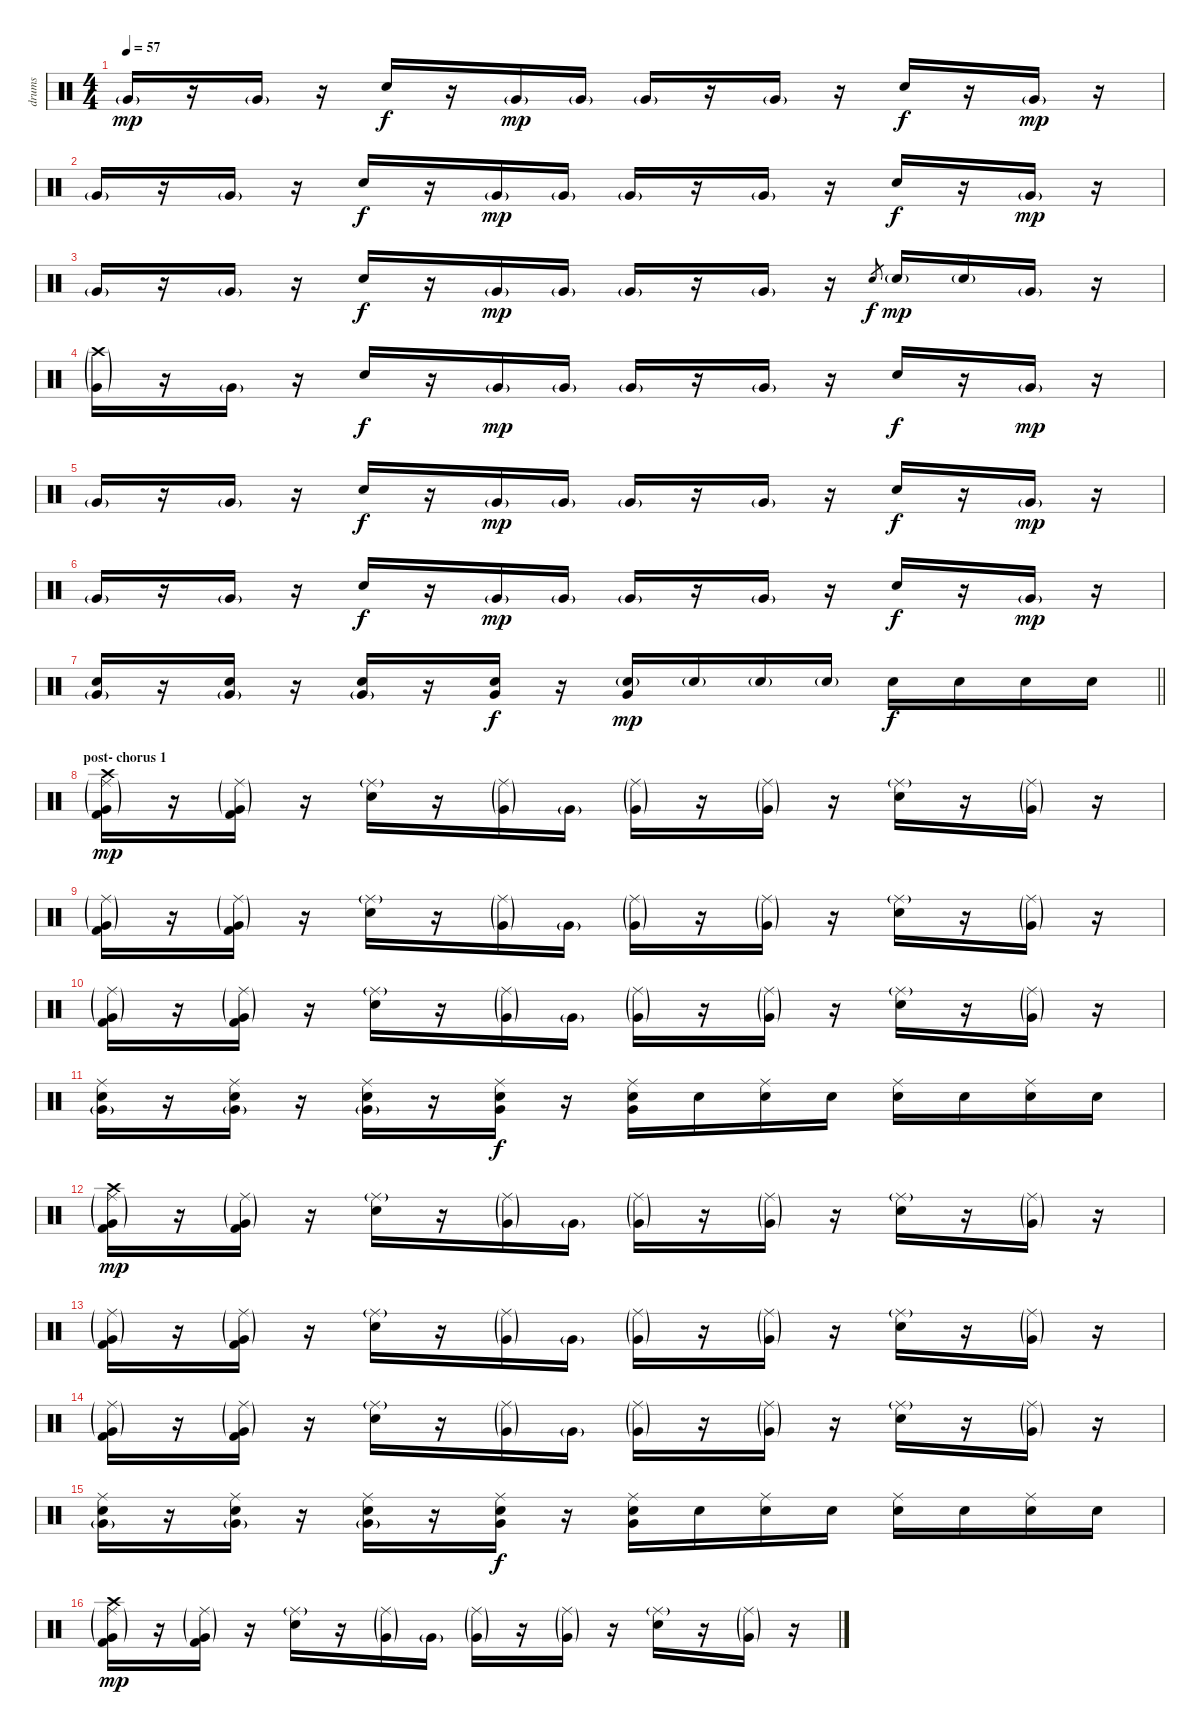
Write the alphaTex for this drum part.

\track ("drums" "drums") {instrument percussion}
\staff {score}
\articulation defaults
\ts (4 4)
\tempo 57
\clef neutral
\ks c "Very Low Tom (hit)"{g}.16{dy mp}
r.16 "Very Low Tom (hit)"{g}.16 r.16 "Electric Snare (hit)".16{dy f} r.16 "Very Low Tom (hit)"{g}.16{dy mp} "Very Low Tom (hit)"{g}.16 "Very Low Tom (hit)"{g}.16 r.16 "Very Low Tom (hit)"{g}.16 r.16 "Electric Snare (hit)".16{dy f} r.16 "Very Low Tom (hit)"{g}.16{dy mp} r.16 |
"Very Low Tom (hit)"{g}.16 r.16 "Very Low Tom (hit)"{g}.16 r.16 "Electric Snare (hit)".16{dy f} r.16 "Very Low Tom (hit)"{g}.16{dy mp} "Very Low Tom (hit)"{g}.16 "Very Low Tom (hit)"{g}.16 r.16 "Very Low Tom (hit)"{g}.16 r.16 "Electric Snare (hit)".16{dy f} r.16 "Very Low Tom (hit)"{g}.16{dy mp} r.16 |
"Very Low Tom (hit)"{g}.16 r.16 "Very Low Tom (hit)"{g}.16 r.16 "Electric Snare (hit)".16{dy f} r.16 "Very Low Tom (hit)"{g}.16{dy mp} "Very Low Tom (hit)"{g}.16 "Very Low Tom (hit)"{g}.16 r.16 "Very Low Tom (hit)"{g}.16 r.16 "Electric Snare (hit)".8{gr dy f} "Electric Snare (hit)"{g}.16{dy mp} "Electric Snare (hit)"{g}.16 "Very Low Tom (hit)"{g}.16 r.16 |
("Very Low Tom (hit)"{g} "Crash high (hit)"{g}).16 r.16 "Very Low Tom (hit)"{g}.16 r.16 "Electric Snare (hit)".16{dy f} r.16 "Very Low Tom (hit)"{g}.16{dy mp} "Very Low Tom (hit)"{g}.16 "Very Low Tom (hit)"{g}.16 r.16 "Very Low Tom (hit)"{g}.16 r.16 "Electric Snare (hit)".16{dy f} r.16 "Very Low Tom (hit)"{g}.16{dy mp} r.16 |
"Very Low Tom (hit)"{g}.16 r.16 "Very Low Tom (hit)"{g}.16 r.16 "Electric Snare (hit)".16{dy f} r.16 "Very Low Tom (hit)"{g}.16{dy mp} "Very Low Tom (hit)"{g}.16 "Very Low Tom (hit)"{g}.16 r.16 "Very Low Tom (hit)"{g}.16 r.16 "Electric Snare (hit)".16{dy f} r.16 "Very Low Tom (hit)"{g}.16{dy mp} r.16 |
"Very Low Tom (hit)"{g}.16 r.16 "Very Low Tom (hit)"{g}.16 r.16 "Electric Snare (hit)".16{dy f} r.16 "Very Low Tom (hit)"{g}.16{dy mp} "Very Low Tom (hit)"{g}.16 "Very Low Tom (hit)"{g}.16 r.16 "Very Low Tom (hit)"{g}.16 r.16 "Electric Snare (hit)".16{dy f} r.16 "Very Low Tom (hit)"{g}.16{dy mp} r.16 |
\barLineRight lightlight
("Electric Snare (hit)" "Very Low Tom (hit)"{g}).16 r.16 ("Electric Snare (hit)" "Very Low Tom (hit)"{g}).16 r.16 ("Electric Snare (hit)" "Very Low Tom (hit)"{g}).16 r.16 ("Electric Snare (hit)" "Very Low Tom (hit)").16{dy f} r.16 ("Electric Snare (hit)"{g} "Very Low Tom (hit)").16{dy mp} "Electric Snare (hit)"{g}.16 "Electric Snare (hit)"{g}.16 "Electric Snare (hit)"{g}.16 "Electric Snare (hit)".16{dy f} "Electric Snare (hit)".16 "Electric Snare (hit)".16 "Electric Snare (hit)".16 |
\section ("" "post- chorus 1")
("Kick (hit) 2" "Very Low Tom (hit)"{g} "Ride (middle)"{g} "Crash high (hit)").16{dy mp} r.16 ("Kick (hit) 2" "Very Low Tom (hit)"{g} "Ride (middle)"{g}).16 r.16 ("Electric Snare (hit)" "Ride (middle)"{g}).16 r.16 ("Very Low Tom (hit)"{g} "Ride (middle)"{g}).16 "Very Low Tom (hit)"{g}.16 ("Very Low Tom (hit)"{g} "Ride (middle)"{g}).16 r.16 ("Very Low Tom (hit)"{g} "Ride (middle)"{g}).16 r.16 ("Electric Snare (hit)" "Ride (middle)"{g}).16 r.16 ("Very Low Tom (hit)"{g} "Ride (middle)"{g}).16 r.16 |
("Kick (hit) 2" "Very Low Tom (hit)"{g} "Ride (middle)"{g}).16 r.16 ("Kick (hit) 2" "Very Low Tom (hit)"{g} "Ride (middle)"{g}).16 r.16 ("Electric Snare (hit)" "Ride (middle)"{g}).16 r.16 ("Very Low Tom (hit)"{g} "Ride (middle)"{g}).16 "Very Low Tom (hit)"{g}.16 ("Very Low Tom (hit)"{g} "Ride (middle)"{g}).16 r.16 ("Very Low Tom (hit)"{g} "Ride (middle)"{g}).16 r.16 ("Electric Snare (hit)" "Ride (middle)"{g}).16 r.16 ("Very Low Tom (hit)"{g} "Ride (middle)"{g}).16 r.16 |
("Kick (hit) 2" "Very Low Tom (hit)"{g} "Ride (middle)"{g}).16 r.16 ("Kick (hit) 2" "Very Low Tom (hit)"{g} "Ride (middle)"{g}).16 r.16 ("Electric Snare (hit)" "Ride (middle)"{g}).16 r.16 ("Very Low Tom (hit)"{g} "Ride (middle)"{g}).16 "Very Low Tom (hit)"{g}.16 ("Very Low Tom (hit)"{g} "Ride (middle)"{g}).16 r.16 ("Very Low Tom (hit)"{g} "Ride (middle)"{g}).16 r.16 ("Electric Snare (hit)" "Ride (middle)"{g}).16 r.16 ("Very Low Tom (hit)"{g} "Ride (middle)"{g}).16 r.16 |
("Electric Snare (hit)" "Very Low Tom (hit)"{g} "Ride (middle)").16 r.16 ("Electric Snare (hit)" "Very Low Tom (hit)"{g} "Ride (middle)").16 r.16 ("Electric Snare (hit)" "Very Low Tom (hit)"{g} "Ride (middle)").16 r.16 ("Electric Snare (hit)" "Very Low Tom (hit)" "Ride (middle)").16{dy f} r.16 ("Electric Snare (hit)" "Very Low Tom (hit)" "Ride (middle)").16 "Electric Snare (hit)".16 ("Electric Snare (hit)" "Ride (middle)").16 "Electric Snare (hit)".16 ("Electric Snare (hit)" "Ride (middle)").16 "Electric Snare (hit)".16 ("Electric Snare (hit)" "Ride (middle)").16 "Electric Snare (hit)".16 |
("Kick (hit) 2" "Very Low Tom (hit)"{g} "Ride (middle)"{g} "Crash high (hit)").16{dy mp} r.16 ("Kick (hit) 2" "Very Low Tom (hit)"{g} "Ride (middle)"{g}).16 r.16 ("Electric Snare (hit)" "Ride (middle)"{g}).16 r.16 ("Very Low Tom (hit)"{g} "Ride (middle)"{g}).16 "Very Low Tom (hit)"{g}.16 ("Very Low Tom (hit)"{g} "Ride (middle)"{g}).16 r.16 ("Very Low Tom (hit)"{g} "Ride (middle)"{g}).16 r.16 ("Electric Snare (hit)" "Ride (middle)"{g}).16 r.16 ("Very Low Tom (hit)"{g} "Ride (middle)"{g}).16 r.16 |
("Kick (hit) 2" "Very Low Tom (hit)"{g} "Ride (middle)"{g}).16 r.16 ("Kick (hit) 2" "Very Low Tom (hit)"{g} "Ride (middle)"{g}).16 r.16 ("Electric Snare (hit)" "Ride (middle)"{g}).16 r.16 ("Very Low Tom (hit)"{g} "Ride (middle)"{g}).16 "Very Low Tom (hit)"{g}.16 ("Very Low Tom (hit)"{g} "Ride (middle)"{g}).16 r.16 ("Very Low Tom (hit)"{g} "Ride (middle)"{g}).16 r.16 ("Electric Snare (hit)" "Ride (middle)"{g}).16 r.16 ("Very Low Tom (hit)"{g} "Ride (middle)"{g}).16 r.16 |
("Kick (hit) 2" "Very Low Tom (hit)"{g} "Ride (middle)"{g}).16 r.16 ("Kick (hit) 2" "Very Low Tom (hit)"{g} "Ride (middle)"{g}).16 r.16 ("Electric Snare (hit)" "Ride (middle)"{g}).16 r.16 ("Very Low Tom (hit)"{g} "Ride (middle)"{g}).16 "Very Low Tom (hit)"{g}.16 ("Very Low Tom (hit)"{g} "Ride (middle)"{g}).16 r.16 ("Very Low Tom (hit)"{g} "Ride (middle)"{g}).16 r.16 ("Electric Snare (hit)" "Ride (middle)"{g}).16 r.16 ("Very Low Tom (hit)"{g} "Ride (middle)"{g}).16 r.16 |
("Electric Snare (hit)" "Very Low Tom (hit)"{g} "Ride (middle)").16 r.16 ("Electric Snare (hit)" "Very Low Tom (hit)"{g} "Ride (middle)").16 r.16 ("Electric Snare (hit)" "Very Low Tom (hit)"{g} "Ride (middle)").16 r.16 ("Electric Snare (hit)" "Very Low Tom (hit)" "Ride (middle)").16{dy f} r.16 ("Electric Snare (hit)" "Very Low Tom (hit)" "Ride (middle)").16 "Electric Snare (hit)".16 ("Electric Snare (hit)" "Ride (middle)").16 "Electric Snare (hit)".16 ("Electric Snare (hit)" "Ride (middle)").16 "Electric Snare (hit)".16 ("Electric Snare (hit)" "Ride (middle)").16 "Electric Snare (hit)".16 |
("Kick (hit) 2" "Very Low Tom (hit)"{g} "Ride (middle)"{g} "Crash high (hit)").16{dy mp} r.16 ("Kick (hit) 2" "Very Low Tom (hit)"{g} "Ride (middle)"{g}).16 r.16 ("Electric Snare (hit)" "Ride (middle)"{g}).16 r.16 ("Very Low Tom (hit)"{g} "Ride (middle)"{g}).16 "Very Low Tom (hit)"{g}.16 ("Very Low Tom (hit)"{g} "Ride (middle)"{g}).16 r.16 ("Very Low Tom (hit)"{g} "Ride (middle)"{g}).16 r.16 ("Electric Snare (hit)" "Ride (middle)"{g}).16 r.16 ("Very Low Tom (hit)"{g} "Ride (middle)"{g}).16 r.16
